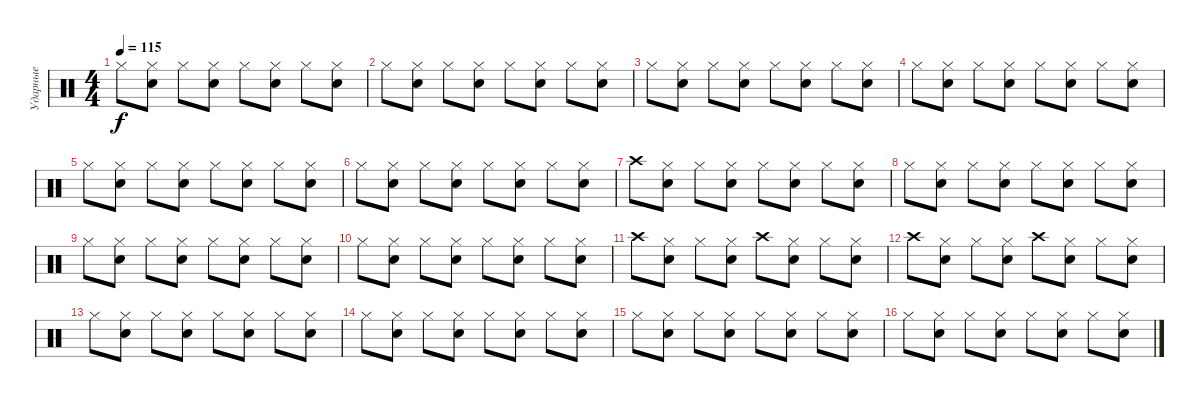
\track ("Ударные" "Ударные") {instrument percussion}
\staff {score}
\articulation defaults
\ts (4 4)
\tempo 115
\clef neutral
\ks c "Hi-Hat (closed)".8{dy f}
("Hi-Hat (closed)" "Snare (hit) 2").8 "Hi-Hat (closed)".8 ("Hi-Hat (closed)" "Snare (hit) 2").8 "Hi-Hat (closed)".8 ("Hi-Hat (closed)" "Snare (hit) 2").8 "Hi-Hat (closed)".8 ("Hi-Hat (closed)" "Snare (hit) 2").8 |
"Hi-Hat (closed)".8 ("Hi-Hat (closed)" "Snare (hit) 2").8 "Hi-Hat (closed)".8 ("Hi-Hat (closed)" "Snare (hit) 2").8 "Hi-Hat (closed)".8 ("Hi-Hat (closed)" "Snare (hit) 2").8 "Hi-Hat (closed)".8 ("Hi-Hat (closed)" "Snare (hit) 2").8 |
"Hi-Hat (closed)".8 ("Hi-Hat (closed)" "Snare (hit) 2").8 "Hi-Hat (closed)".8 ("Hi-Hat (closed)" "Snare (hit) 2").8 "Hi-Hat (closed)".8 ("Hi-Hat (closed)" "Snare (hit) 2").8 "Hi-Hat (closed)".8 ("Hi-Hat (closed)" "Snare (hit) 2").8 |
"Hi-Hat (closed)".8 ("Hi-Hat (closed)" "Snare (hit) 2").8 "Hi-Hat (closed)".8 ("Hi-Hat (closed)" "Snare (hit) 2").8 "Hi-Hat (closed)".8 ("Hi-Hat (closed)" "Snare (hit) 2").8 "Hi-Hat (closed)".8 ("Hi-Hat (closed)" "Snare (hit) 2").8 |
"Hi-Hat (closed)".8 ("Hi-Hat (closed)" "Snare (hit) 2").8 "Hi-Hat (closed)".8 ("Hi-Hat (closed)" "Snare (hit) 2").8 "Hi-Hat (closed)".8 ("Hi-Hat (closed)" "Snare (hit) 2").8 "Hi-Hat (closed)".8 ("Hi-Hat (closed)" "Snare (hit) 2").8 |
"Hi-Hat (closed)".8 ("Hi-Hat (closed)" "Snare (hit) 2").8 "Hi-Hat (closed)".8 ("Hi-Hat (closed)" "Snare (hit) 2").8 "Hi-Hat (closed)".8 ("Hi-Hat (closed)" "Snare (hit) 2").8 "Hi-Hat (closed)".8 ("Hi-Hat (closed)" "Snare (hit) 2").8 |
"Crash high (hit)".8 ("Hi-Hat (closed)" "Snare (hit) 2").8 "Hi-Hat (closed)".8 ("Hi-Hat (closed)" "Snare (hit) 2").8 "Hi-Hat (closed)".8 ("Hi-Hat (closed)" "Snare (hit) 2").8 "Hi-Hat (closed)".8 ("Hi-Hat (closed)" "Snare (hit) 2").8 |
"Hi-Hat (closed)".8 ("Hi-Hat (closed)" "Snare (hit) 2").8 "Hi-Hat (closed)".8 ("Hi-Hat (closed)" "Snare (hit) 2").8 "Hi-Hat (closed)".8 ("Hi-Hat (closed)" "Snare (hit) 2").8 "Hi-Hat (closed)".8 ("Hi-Hat (closed)" "Snare (hit) 2").8 |
"Hi-Hat (closed)".8 ("Hi-Hat (closed)" "Snare (hit) 2").8 "Hi-Hat (closed)".8 ("Hi-Hat (closed)" "Snare (hit) 2").8 "Hi-Hat (closed)".8 ("Hi-Hat (closed)" "Snare (hit) 2").8 "Hi-Hat (closed)".8 ("Hi-Hat (closed)" "Snare (hit) 2").8 |
"Hi-Hat (closed)".8 ("Hi-Hat (closed)" "Snare (hit) 2").8 "Hi-Hat (closed)".8 ("Hi-Hat (closed)" "Snare (hit) 2").8 "Hi-Hat (closed)".8 ("Hi-Hat (closed)" "Snare (hit) 2").8 "Hi-Hat (closed)".8 ("Hi-Hat (closed)" "Snare (hit) 2").8 |
"Crash high (hit)".8 ("Hi-Hat (closed)" "Snare (hit) 2").8 "Hi-Hat (closed)".8 ("Hi-Hat (closed)" "Snare (hit) 2").8 "Crash high (hit)".8 ("Hi-Hat (closed)" "Snare (hit) 2").8 "Hi-Hat (closed)".8 ("Hi-Hat (closed)" "Snare (hit) 2").8 |
"Crash high (hit)".8 ("Hi-Hat (closed)" "Snare (hit) 2").8 "Hi-Hat (closed)".8 ("Hi-Hat (closed)" "Snare (hit) 2").8 "Crash high (hit)".8 ("Hi-Hat (closed)" "Snare (hit) 2").8 "Hi-Hat (closed)".8 ("Hi-Hat (closed)" "Snare (hit) 2").8 |
"Hi-Hat (closed)".8 ("Hi-Hat (closed)" "Snare (hit) 2").8 "Hi-Hat (closed)".8 ("Hi-Hat (closed)" "Snare (hit) 2").8 "Hi-Hat (closed)".8 ("Hi-Hat (closed)" "Snare (hit) 2").8 "Hi-Hat (closed)".8 ("Hi-Hat (closed)" "Snare (hit) 2").8 |
"Hi-Hat (closed)".8 ("Hi-Hat (closed)" "Snare (hit) 2").8 "Hi-Hat (closed)".8 ("Hi-Hat (closed)" "Snare (hit) 2").8 "Hi-Hat (closed)".8 ("Hi-Hat (closed)" "Snare (hit) 2").8 "Hi-Hat (closed)".8 ("Hi-Hat (closed)" "Snare (hit) 2").8 |
"Hi-Hat (closed)".8 ("Hi-Hat (closed)" "Snare (hit) 2").8 "Hi-Hat (closed)".8 ("Hi-Hat (closed)" "Snare (hit) 2").8 "Hi-Hat (closed)".8 ("Hi-Hat (closed)" "Snare (hit) 2").8 "Hi-Hat (closed)".8 ("Hi-Hat (closed)" "Snare (hit) 2").8 |
"Hi-Hat (closed)".8 ("Hi-Hat (closed)" "Snare (hit) 2").8 "Hi-Hat (closed)".8 ("Hi-Hat (closed)" "Snare (hit) 2").8 "Hi-Hat (closed)".8 ("Hi-Hat (closed)" "Snare (hit) 2").8 "Hi-Hat (closed)".8 ("Hi-Hat (closed)" "Snare (hit) 2").8
